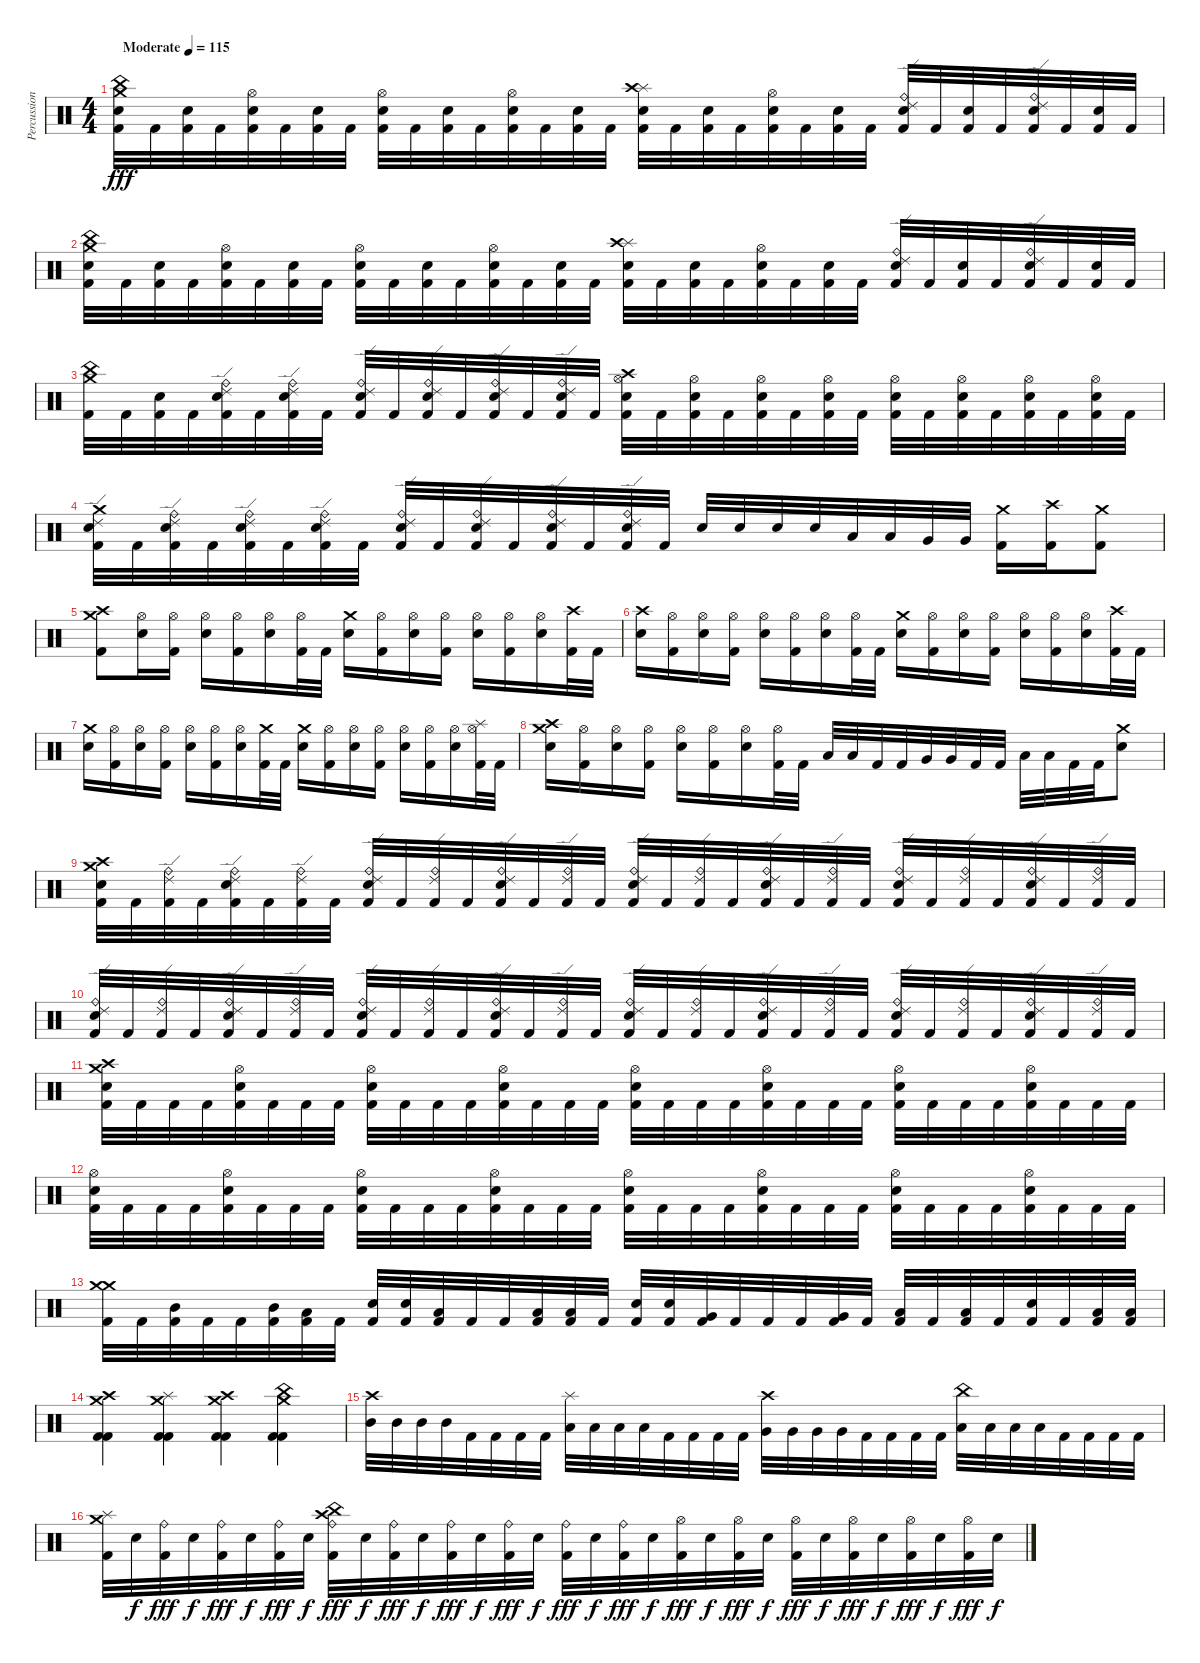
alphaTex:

\track ("Percussion" "Percussion") {instrument percussion}
\staff
\articulation defaults
\ts (4 4)
\tempo (115 "Moderate")
\clef neutral
\ks c
("China (hit)" "Crash medium (hit)" "Snare (hit) 2" "Kick (hit) 2").32{dy fff} "Kick (hit) 2".32 ("Snare (hit) 2" "Kick (hit) 2").32 "Kick (hit) 2".32 ("Hi-Hat (open)" "Snare (hit) 2" "Kick (hit) 2").32 "Kick (hit) 2".32 ("Snare (hit) 2" "Kick (hit) 2").32 "Kick (hit) 2".32 ("Hi-Hat (open)" "Snare (hit) 2" "Kick (hit) 2").32 "Kick (hit) 2".32 ("Snare (hit) 2" "Kick (hit) 2").32 "Kick (hit) 2".32 ("Hi-Hat (open)" "Snare (hit) 2" "Kick (hit) 2").32 "Kick (hit) 2".32 ("Snare (hit) 2" "Kick (hit) 2").32 "Kick (hit) 2".32 ("Splash (hit)" "Crash high (hit)" "Snare (hit) 2" "Kick (hit) 2").32 "Kick (hit) 2".32 ("Snare (hit) 2" "Kick (hit) 2").32 "Kick (hit) 2".32 ("Hi-Hat (open)" "Snare (hit) 2" "Kick (hit) 2").32 "Kick (hit) 2".32 ("Snare (hit) 2" "Kick (hit) 2").32 "Kick (hit) 2".32 ("Ride (bell)" "Ride (edge) 2" "Snare (hit) 2" "Kick (hit) 2").32 "Kick (hit) 2".32 ("Snare (hit) 2" "Kick (hit) 2").32 "Kick (hit) 2".32 ("Ride (bell)" "Ride (edge) 2" "Snare (hit) 2" "Kick (hit) 2").32 "Kick (hit) 2".32 ("Snare (hit) 2" "Kick (hit) 2").32 "Kick (hit) 2".32 |
("China (hit)" "Crash medium (hit)" "Snare (hit) 2" "Kick (hit) 2").32 "Kick (hit) 2".32 ("Snare (hit) 2" "Kick (hit) 2").32 "Kick (hit) 2".32 ("Hi-Hat (open)" "Snare (hit) 2" "Kick (hit) 2").32 "Kick (hit) 2".32 ("Snare (hit) 2" "Kick (hit) 2").32 "Kick (hit) 2".32 ("Hi-Hat (open)" "Snare (hit) 2" "Kick (hit) 2").32 "Kick (hit) 2".32 ("Snare (hit) 2" "Kick (hit) 2").32 "Kick (hit) 2".32 ("Hi-Hat (open)" "Snare (hit) 2" "Kick (hit) 2").32 "Kick (hit) 2".32 ("Snare (hit) 2" "Kick (hit) 2").32 "Kick (hit) 2".32 ("Splash (hit)" "Crash high (hit)" "Snare (hit) 2" "Kick (hit) 2").32 "Kick (hit) 2".32 ("Snare (hit) 2" "Kick (hit) 2").32 "Kick (hit) 2".32 ("Hi-Hat (open)" "Snare (hit) 2" "Kick (hit) 2").32 "Kick (hit) 2".32 ("Snare (hit) 2" "Kick (hit) 2").32 "Kick (hit) 2".32 ("Ride (bell)" "Ride (edge) 2" "Snare (hit) 2" "Kick (hit) 2").32 "Kick (hit) 2".32 ("Snare (hit) 2" "Kick (hit) 2").32 "Kick (hit) 2".32 ("Ride (bell)" "Ride (edge) 2" "Snare (hit) 2" "Kick (hit) 2").32 "Kick (hit) 2".32 ("Snare (hit) 2" "Kick (hit) 2").32 "Kick (hit) 2".32 |
("China (hit)" "Crash medium (hit)" "Kick (hit) 2").32 "Kick (hit) 2".32 ("Snare (hit) 2" "Kick (hit) 2").32 "Kick (hit) 2".32 ("Ride (bell)" "Ride (edge) 2" "Snare (hit) 2" "Kick (hit) 2").32 "Kick (hit) 2".32 ("Ride (bell)" "Ride (edge) 2" "Snare (hit) 2" "Kick (hit) 2").32 "Kick (hit) 2".32 ("Ride (bell)" "Ride (edge) 2" "Snare (hit) 2" "Kick (hit) 2").32 "Kick (hit) 2".32 ("Ride (bell)" "Ride (edge) 2" "Snare (hit) 2" "Kick (hit) 2").32 "Kick (hit) 2".32 ("Ride (bell)" "Ride (edge) 2" "Snare (hit) 2" "Kick (hit) 2").32 "Kick (hit) 2".32 ("Ride (bell)" "Ride (edge) 2" "Snare (hit) 2" "Kick (hit) 2").32 "Kick (hit) 2".32 ("Crash high (hit)" "Hi-Hat (open)" "Snare (hit) 2" "Kick (hit) 2").32 "Kick (hit) 2".32 ("Hi-Hat (open)" "Snare (hit) 2" "Kick (hit) 2").32 "Kick (hit) 2".32 ("Hi-Hat (open)" "Snare (hit) 2" "Kick (hit) 2").32 "Kick (hit) 2".32 ("Hi-Hat (open)" "Snare (hit) 2" "Kick (hit) 2").32 "Kick (hit) 2".32 ("Hi-Hat (open)" "Snare (hit) 2" "Kick (hit) 2").32 "Kick (hit) 2".32 ("Hi-Hat (open)" "Snare (hit) 2" "Kick (hit) 2").32 "Kick (hit) 2".32 ("Hi-Hat (open)" "Snare (hit) 2" "Kick (hit) 2").32 "Kick (hit) 2".32 ("Hi-Hat (open)" "Snare (hit) 2" "Kick (hit) 2").32 "Kick (hit) 2".32 |
("Crash medium (hit)" "Ride (edge) 2" "Snare (hit) 2" "Kick (hit) 2").32 "Kick (hit) 2".32 ("Ride (bell)" "Ride (edge) 2" "Snare (hit) 2" "Kick (hit) 2").32 "Kick (hit) 2".32 ("Ride (bell)" "Ride (edge) 2" "Snare (hit) 2" "Kick (hit) 2").32 "Kick (hit) 2".32 ("Ride (bell)" "Ride (edge) 2" "Snare (hit) 2" "Kick (hit) 2").32 "Kick (hit) 2".32 ("Ride (bell)" "Ride (edge) 2" "Snare (hit) 2" "Kick (hit) 2").32 "Kick (hit) 2".32 ("Ride (bell)" "Ride (edge) 2" "Snare (hit) 2" "Kick (hit) 2").32 "Kick (hit) 2".32 ("Ride (bell)" "Ride (edge) 2" "Snare (hit) 2" "Kick (hit) 2").32 "Kick (hit) 2".32 ("Ride (bell)" "Ride (edge) 2" "Snare (hit) 2" "Kick (hit) 2").32 "Kick (hit) 2".32 "Snare (hit) 2".32 "Snare (hit) 2".32 "Snare (hit) 2".32 "Snare (hit) 2".32 "Low Tom (hit)".32 "Low Tom (hit)".32 "Very Low Tom (hit)".32 "Very Low Tom (hit)".32 ("Crash medium (hit)" "Kick (hit) 2").16 ("Crash high (hit)" "Kick (hit) 2").16 ("Crash medium (hit)" "Kick (hit) 2").8 |
("Crash high (hit)" "Crash medium (hit)" "Kick (hit) 2").8 ("Hi-Hat (open)" "Snare (hit) 2").16 ("Hi-Hat (open)" "Kick (hit) 2").16 ("Hi-Hat (open)" "Snare (hit) 2").16 ("Hi-Hat (open)" "Kick (hit) 2").16 ("Hi-Hat (open)" "Snare (hit) 2").16 ("Hi-Hat (open)" "Kick (hit) 2").32 "Kick (hit) 2".32 ("Crash medium (hit)" "Snare (hit) 2").16 ("Hi-Hat (open)" "Kick (hit) 2").16 ("Hi-Hat (open)" "Snare (hit) 2").16 ("Hi-Hat (open)" "Kick (hit) 2").16 ("Hi-Hat (open)" "Snare (hit) 2").16 ("Hi-Hat (open)" "Kick (hit) 2").16 ("Hi-Hat (open)" "Snare (hit) 2").16 ("Crash high (hit)" "Kick (hit) 2").32 "Kick (hit) 2".32 |
("Crash high (hit)" "Snare (hit) 2").16 ("Hi-Hat (open)" "Kick (hit) 2").16 ("Hi-Hat (open)" "Snare (hit) 2").16 ("Hi-Hat (open)" "Kick (hit) 2").16 ("Hi-Hat (open)" "Snare (hit) 2").16 ("Hi-Hat (open)" "Kick (hit) 2").16 ("Hi-Hat (open)" "Snare (hit) 2").16 ("Hi-Hat (open)" "Kick (hit) 2").32 "Kick (hit) 2".32 ("Crash medium (hit)" "Snare (hit) 2").16 ("Hi-Hat (open)" "Kick (hit) 2").16 ("Hi-Hat (open)" "Snare (hit) 2").16 ("Hi-Hat (open)" "Kick (hit) 2").16 ("Hi-Hat (open)" "Snare (hit) 2").16 ("Hi-Hat (open)" "Kick (hit) 2").16 ("Hi-Hat (open)" "Snare (hit) 2").16 ("Crash high (hit)" "Kick (hit) 2").32 "Kick (hit) 2".32 |
("Crash medium (hit)" "Snare (hit) 2").16 ("Hi-Hat (open)" "Kick (hit) 2").16 ("Hi-Hat (open)" "Snare (hit) 2").16 ("Hi-Hat (open)" "Kick (hit) 2").16 ("Hi-Hat (open)" "Snare (hit) 2").16 ("Hi-Hat (open)" "Kick (hit) 2").16 ("Hi-Hat (open)" "Snare (hit) 2").16 ("Crash medium (hit)" "Kick (hit) 2").32 "Kick (hit) 2".32 ("Crash medium (hit)" "Snare (hit) 2").16 ("Hi-Hat (open)" "Kick (hit) 2").16 ("Hi-Hat (open)" "Snare (hit) 2").16 ("Hi-Hat (open)" "Kick (hit) 2").16 ("Hi-Hat (open)" "Snare (hit) 2").16 ("Hi-Hat (open)" "Kick (hit) 2").16 ("Hi-Hat (open)" "Snare (hit) 2").16 ("Splash (hit)" "Hi-Hat (open)" "Kick (hit) 2").32 "Kick (hit) 2".32 |
("Crash medium (hit)" "Crash high (hit)" "Snare (hit) 2").16 ("Hi-Hat (open)" "Kick (hit) 2").16 ("Hi-Hat (open)" "Snare (hit) 2").16 ("Hi-Hat (open)" "Kick (hit) 2").16 ("Hi-Hat (open)" "Snare (hit) 2").16 ("Hi-Hat (open)" "Kick (hit) 2").16 ("Hi-Hat (open)" "Snare (hit) 2").16 ("Hi-Hat (open)" "Kick (hit) 2").32 "Kick (hit) 2".32 "Low Tom (hit)".32 "Low Tom (hit)".32 "Kick (hit) 2".32 "Kick (hit) 2".32 "Very Low Tom (hit)".32 "Very Low Tom (hit)".32 "Kick (hit) 2".32 "Kick (hit) 2".32 "Low Floor Tom (hit)".32 "Low Floor Tom (hit)".32 "Kick (hit) 2".32 "Kick (hit) 2".32 ("Crash medium (hit)" "Snare (hit) 2").8 |
("Crash medium (hit)" "Crash high (hit)" "Snare (hit) 2" "Kick (hit) 2").32 "Kick (hit) 2".32 ("Ride (bell)" "Ride (edge) 2" "Kick (hit) 2").32 "Kick (hit) 2".32 ("Ride (bell)" "Ride (edge) 2" "Snare (hit) 2" "Kick (hit) 2").32 "Kick (hit) 2".32 ("Ride (bell)" "Ride (edge) 2" "Kick (hit) 2").32 "Kick (hit) 2".32 ("Ride (bell)" "Ride (edge) 2" "Snare (hit) 2" "Kick (hit) 2").32 "Kick (hit) 2".32 ("Ride (bell)" "Ride (edge) 2" "Kick (hit) 2").32 "Kick (hit) 2".32 ("Ride (bell)" "Ride (edge) 2" "Snare (hit) 2" "Kick (hit) 2").32 "Kick (hit) 2".32 ("Ride (bell)" "Ride (edge) 2" "Kick (hit) 2").32 "Kick (hit) 2".32 ("Ride (bell)" "Ride (edge) 2" "Snare (hit) 2" "Kick (hit) 2").32 "Kick (hit) 2".32 ("Ride (bell)" "Ride (edge) 2" "Kick (hit) 2").32 "Kick (hit) 2".32 ("Ride (bell)" "Ride (edge) 2" "Snare (hit) 2" "Kick (hit) 2").32 "Kick (hit) 2".32 ("Ride (bell)" "Ride (edge) 2" "Kick (hit) 2").32 "Kick (hit) 2".32 ("Ride (bell)" "Ride (edge) 2" "Snare (hit) 2" "Kick (hit) 2").32 "Kick (hit) 2".32 ("Ride (bell)" "Ride (edge) 2" "Kick (hit) 2").32 "Kick (hit) 2".32 ("Ride (bell)" "Ride (edge) 2" "Snare (hit) 2" "Kick (hit) 2").32 "Kick (hit) 2".32 ("Ride (bell)" "Ride (edge) 2" "Kick (hit) 2").32 "Kick (hit) 2".32 |
("Ride (bell)" "Ride (edge) 2" "Snare (hit) 2" "Kick (hit) 2").32 "Kick (hit) 2".32 ("Ride (bell)" "Ride (edge) 2" "Kick (hit) 2").32 "Kick (hit) 2".32 ("Ride (bell)" "Ride (edge) 2" "Snare (hit) 2" "Kick (hit) 2").32 "Kick (hit) 2".32 ("Ride (bell)" "Ride (edge) 2" "Kick (hit) 2").32 "Kick (hit) 2".32 ("Ride (bell)" "Ride (edge) 2" "Snare (hit) 2" "Kick (hit) 2").32 "Kick (hit) 2".32 ("Ride (bell)" "Ride (edge) 2" "Kick (hit) 2").32 "Kick (hit) 2".32 ("Ride (bell)" "Ride (edge) 2" "Snare (hit) 2" "Kick (hit) 2").32 "Kick (hit) 2".32 ("Ride (bell)" "Ride (edge) 2" "Kick (hit) 2").32 "Kick (hit) 2".32 ("Ride (bell)" "Ride (edge) 2" "Snare (hit) 2" "Kick (hit) 2").32 "Kick (hit) 2".32 ("Ride (bell)" "Ride (edge) 2" "Kick (hit) 2").32 "Kick (hit) 2".32 ("Ride (bell)" "Ride (edge) 2" "Snare (hit) 2" "Kick (hit) 2").32 "Kick (hit) 2".32 ("Ride (bell)" "Ride (edge) 2" "Kick (hit) 2").32 "Kick (hit) 2".32 ("Ride (bell)" "Ride (edge) 2" "Snare (hit) 2" "Kick (hit) 2").32 "Kick (hit) 2".32 ("Ride (bell)" "Ride (edge) 2" "Kick (hit) 2").32 "Kick (hit) 2".32 ("Ride (bell)" "Ride (edge) 2" "Snare (hit) 2" "Kick (hit) 2").32 "Kick (hit) 2".32 ("Ride (bell)" "Ride (edge) 2" "Kick (hit) 2").32 "Kick (hit) 2".32 |
("Crash medium (hit)" "Crash high (hit)" "Snare (hit) 2" "Kick (hit) 2").32 "Kick (hit) 2".32 "Kick (hit) 2".32 "Kick (hit) 2".32 ("Hi-Hat (open)" "Snare (hit) 2" "Kick (hit) 2").32 "Kick (hit) 2".32 "Kick (hit) 2".32 "Kick (hit) 2".32 ("Hi-Hat (open)" "Snare (hit) 2" "Kick (hit) 2").32 "Kick (hit) 2".32 "Kick (hit) 2".32 "Kick (hit) 2".32 ("Hi-Hat (open)" "Snare (hit) 2" "Kick (hit) 2").32 "Kick (hit) 2".32 "Kick (hit) 2".32 "Kick (hit) 2".32 ("Hi-Hat (open)" "Snare (hit) 2" "Kick (hit) 2").32 "Kick (hit) 2".32 "Kick (hit) 2".32 "Kick (hit) 2".32 ("Hi-Hat (open)" "Snare (hit) 2" "Kick (hit) 2").32 "Kick (hit) 2".32 "Kick (hit) 2".32 "Kick (hit) 2".32 ("Hi-Hat (open)" "Snare (hit) 2" "Kick (hit) 2").32 "Kick (hit) 2".32 "Kick (hit) 2".32 "Kick (hit) 2".32 ("Hi-Hat (open)" "Snare (hit) 2" "Kick (hit) 2").32 "Kick (hit) 2".32 "Kick (hit) 2".32 "Kick (hit) 2".32 |
("Hi-Hat (open)" "Snare (hit) 2" "Kick (hit) 2").32 "Kick (hit) 2".32 "Kick (hit) 2".32 "Kick (hit) 2".32 ("Hi-Hat (open)" "Snare (hit) 2" "Kick (hit) 2").32 "Kick (hit) 2".32 "Kick (hit) 2".32 "Kick (hit) 2".32 ("Hi-Hat (open)" "Snare (hit) 2" "Kick (hit) 2").32 "Kick (hit) 2".32 "Kick (hit) 2".32 "Kick (hit) 2".32 ("Hi-Hat (open)" "Snare (hit) 2" "Kick (hit) 2").32 "Kick (hit) 2".32 "Kick (hit) 2".32 "Kick (hit) 2".32 ("Hi-Hat (open)" "Snare (hit) 2" "Kick (hit) 2").32 "Kick (hit) 2".32 "Kick (hit) 2".32 "Kick (hit) 2".32 ("Hi-Hat (open)" "Snare (hit) 2" "Kick (hit) 2").32 "Kick (hit) 2".32 "Kick (hit) 2".32 "Kick (hit) 2".32 ("Hi-Hat (open)" "Snare (hit) 2" "Kick (hit) 2").32 "Kick (hit) 2".32 "Kick (hit) 2".32 "Kick (hit) 2".32 ("Hi-Hat (open)" "Snare (hit) 2" "Kick (hit) 2").32 "Kick (hit) 2".32 "Kick (hit) 2".32 "Kick (hit) 2".32 |
("Crash medium (hit)" "Crash medium (hit)" "Kick (hit) 2").32 "Kick (hit) 2".32 ("Mid Tom (hit)" "Kick (hit) 2").32 "Kick (hit) 2".32 "Kick (hit) 2".32 ("Mid Tom (hit)" "Kick (hit) 2").32 ("Low Tom (hit)" "Kick (hit) 2").32 "Kick (hit) 2".32 ("Snare (hit) 2" "Kick (hit) 2").32 ("Snare (hit) 2" "Kick (hit) 2").32 ("Low Tom (hit)" "Kick (hit) 2").32 "Kick (hit) 2".32 "Kick (hit) 2".32 ("Low Tom (hit)" "Kick (hit) 2").32 ("Low Tom (hit)" "Kick (hit) 2").32 "Kick (hit) 2".32 ("Snare (hit) 2" "Kick (hit) 2").32 ("Snare (hit) 2" "Kick (hit) 2").32 ("Very Low Tom (hit)" "Kick (hit) 2").32 "Kick (hit) 2".32 "Kick (hit) 2".32 "Kick (hit) 2".32 ("Very Low Tom (hit)" "Kick (hit) 2").32 "Kick (hit) 2".32 ("Low Tom (hit)" "Kick (hit) 2").32 "Kick (hit) 2".32 ("Low Tom (hit)" "Kick (hit) 2").32 "Kick (hit) 2".32 ("Snare (hit) 2" "Kick (hit) 2").32 "Kick (hit) 2".32 ("Low Floor Tom (hit)" "Kick (hit) 2").32 ("Low Floor Tom (hit)" "Kick (hit) 2").32 |
("Crash high (hit)" "Crash medium (hit)" "Kick (hit) 2" "Kick (hit) 2").4 ("Splash (hit)" "Crash medium (hit)" "Kick (hit) 2" "Kick (hit) 2").4 ("Crash high (hit)" "Crash medium (hit)" "Kick (hit) 2" "Kick (hit) 2").4 ("China (hit)" "Crash medium (hit)" "Kick (hit) 2" "Kick (hit) 2").4 |
("Crash high (hit)" "Mid Tom (hit)").32 "Mid Tom (hit)".32 "Mid Tom (hit)".32 "Mid Tom (hit)".32 "Kick (hit) 2".32 "Kick (hit) 2".32 "Kick (hit) 2".32 "Kick (hit) 2".32 ("Splash (hit)" "Low Tom (hit)").32 "Low Tom (hit)".32 "Low Tom (hit)".32 "Low Tom (hit)".32 "Kick (hit) 2".32 "Kick (hit) 2".32 "Kick (hit) 2".32 "Kick (hit) 2".32 ("Crash high (hit)" "Very Low Tom (hit)").32 "Very Low Tom (hit)".32 "Very Low Tom (hit)".32 "Very Low Tom (hit)".32 "Kick (hit) 2".32 "Kick (hit) 2".32 "Kick (hit) 2".32 "Kick (hit) 2".32 ("China (hit)" "Low Floor Tom (hit)").32 "Low Floor Tom (hit)".32 "Low Floor Tom (hit)".32 "Low Floor Tom (hit)".32 "Kick (hit) 2".32 "Kick (hit) 2".32 "Kick (hit) 2".32 "Kick (hit) 2".32 |
("Splash (hit)" "Crash medium (hit)" "Kick (hit) 2").32 "Snare (hit) 2".32{dy f} ("Ride (bell)" "Kick (hit) 2").32{dy fff} "Snare (hit) 2".32{dy f} ("Ride (bell)" "Kick (hit) 2").32{dy fff} "Snare (hit) 2".32{dy f} ("Ride (bell)" "Kick (hit) 2").32{dy fff} "Snare (hit) 2".32{dy f} ("China (hit)" "Crash high (hit)" "Ride (bell)" "Kick (hit) 2").32{dy fff} "Snare (hit) 2".32{dy f} ("Ride (bell)" "Kick (hit) 2").32{dy fff} "Snare (hit) 2".32{dy f} ("Ride (bell)" "Kick (hit) 2").32{dy fff} "Snare (hit) 2".32{dy f} ("Ride (bell)" "Kick (hit) 2").32{dy fff} "Snare (hit) 2".32{dy f} ("Ride (bell)" "Kick (hit) 2").32{dy fff} "Snare (hit) 2".32{dy f} ("Ride (bell)" "Kick (hit) 2").32{dy fff} "Snare (hit) 2".32{dy f} ("Hi-Hat (open)" "Kick (hit) 2").32{dy fff} "Snare (hit) 2".32{dy f} ("Hi-Hat (open)" "Kick (hit) 2").32{dy fff} "Snare (hit) 2".32{dy f} ("Hi-Hat (open)" "Kick (hit) 2").32{dy fff} "Snare (hit) 2".32{dy f} ("Hi-Hat (open)" "Kick (hit) 2").32{dy fff} "Snare (hit) 2".32{dy f} ("Hi-Hat (open)" "Kick (hit) 2").32{dy fff} "Snare (hit) 2".32{dy f} ("Hi-Hat (open)" "Kick (hit) 2").32{dy fff} "Snare (hit) 2".32{dy f}
